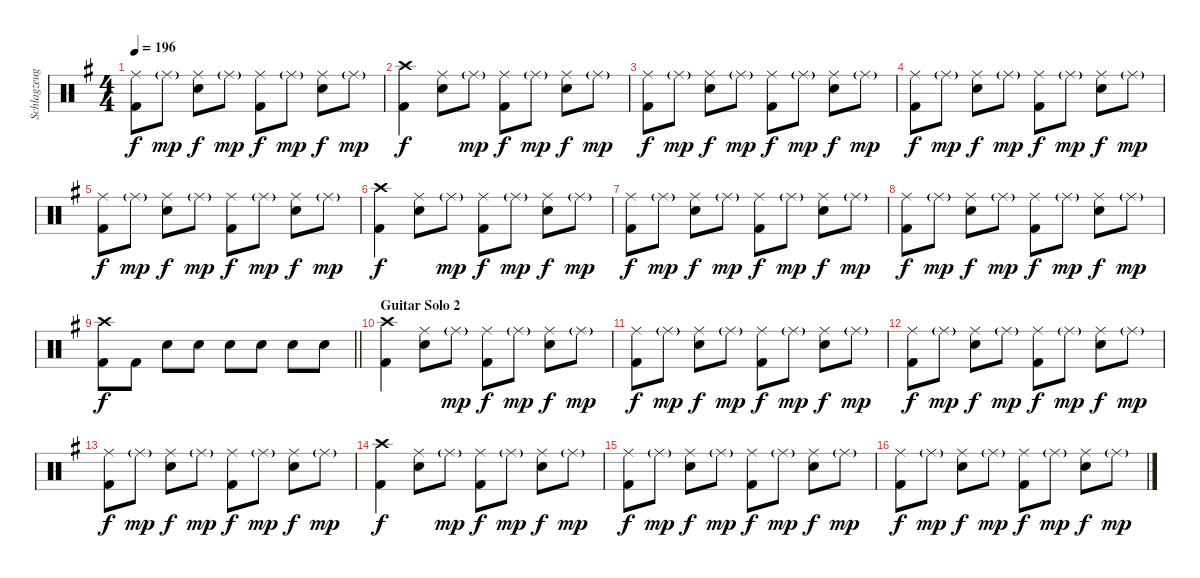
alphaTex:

\track ("Schlagzeug" "Schlagzeug") {instrument percussion}
\staff {score}
\articulation defaults
\ts (4 4)
\tempo 196
\clef neutral
\ks g
("Ride (middle)" "Kick (hit) 2").8{dy f} "Ride (middle)"{g}.8{dy mp} ("Ride (middle)" "Snare (hit) 2").8{dy f} "Ride (middle)"{g}.8{dy mp} ("Ride (middle)" "Kick (hit) 2").8{dy f} "Ride (middle)"{g}.8{dy mp} ("Ride (middle)" "Snare (hit) 2").8{dy f} "Ride (middle)"{g}.8{dy mp} |
("Crash high (hit)" "Kick (hit) 2").4{dy f} ("Ride (middle)" "Snare (hit) 2").8 "Ride (middle)"{g}.8{dy mp} ("Ride (middle)" "Kick (hit) 2").8{dy f} "Ride (middle)"{g}.8{dy mp} ("Ride (middle)" "Snare (hit) 2").8{dy f} "Ride (middle)"{g}.8{dy mp} |
("Ride (middle)" "Kick (hit) 2").8{dy f} "Ride (middle)"{g}.8{dy mp} ("Ride (middle)" "Snare (hit) 2").8{dy f} "Ride (middle)"{g}.8{dy mp} ("Ride (middle)" "Kick (hit) 2").8{dy f} "Ride (middle)"{g}.8{dy mp} ("Ride (middle)" "Snare (hit) 2").8{dy f} "Ride (middle)"{g}.8{dy mp} |
("Ride (middle)" "Kick (hit) 2").8{dy f} "Ride (middle)"{g}.8{dy mp} ("Ride (middle)" "Snare (hit) 2").8{dy f} "Ride (middle)"{g}.8{dy mp} ("Ride (middle)" "Kick (hit) 2").8{dy f} "Ride (middle)"{g}.8{dy mp} ("Ride (middle)" "Snare (hit) 2").8{dy f} "Ride (middle)"{g}.8{dy mp} |
("Ride (middle)" "Kick (hit) 2").8{dy f} "Ride (middle)"{g}.8{dy mp} ("Ride (middle)" "Snare (hit) 2").8{dy f} "Ride (middle)"{g}.8{dy mp} ("Ride (middle)" "Kick (hit) 2").8{dy f} "Ride (middle)"{g}.8{dy mp} ("Ride (middle)" "Snare (hit) 2").8{dy f} "Ride (middle)"{g}.8{dy mp} |
("Crash high (hit)" "Kick (hit) 2").4{dy f} ("Ride (middle)" "Snare (hit) 2").8 "Ride (middle)"{g}.8{dy mp} ("Ride (middle)" "Kick (hit) 2").8{dy f} "Ride (middle)"{g}.8{dy mp} ("Ride (middle)" "Snare (hit) 2").8{dy f} "Ride (middle)"{g}.8{dy mp} |
("Ride (middle)" "Kick (hit) 2").8{dy f} "Ride (middle)"{g}.8{dy mp} ("Ride (middle)" "Snare (hit) 2").8{dy f} "Ride (middle)"{g}.8{dy mp} ("Ride (middle)" "Kick (hit) 2").8{dy f} "Ride (middle)"{g}.8{dy mp} ("Ride (middle)" "Snare (hit) 2").8{dy f} "Ride (middle)"{g}.8{dy mp} |
("Ride (middle)" "Kick (hit) 2").8{dy f} "Ride (middle)"{g}.8{dy mp} ("Ride (middle)" "Snare (hit) 2").8{dy f} "Ride (middle)"{g}.8{dy mp} ("Ride (middle)" "Kick (hit) 2").8{dy f} "Ride (middle)"{g}.8{dy mp} ("Ride (middle)" "Snare (hit) 2").8{dy f} "Ride (middle)"{g}.8{dy mp} |
\barLineRight lightlight
("Crash high (hit)" "Kick (hit) 2").8{dy f} "Kick (hit) 2".8 "Snare (hit) 2".8 "Snare (hit) 2".8 "Snare (hit) 2".8 "Snare (hit) 2".8 "Snare (hit) 2".8 "Snare (hit) 2".8 |
\section ("" "Guitar Solo 2")
("Crash high (hit)" "Kick (hit) 2").4 ("Ride (middle)" "Snare (hit) 2").8 "Ride (middle)"{g}.8{dy mp} ("Ride (middle)" "Kick (hit) 2").8{dy f} "Ride (middle)"{g}.8{dy mp} ("Ride (middle)" "Snare (hit) 2").8{dy f} "Ride (middle)"{g}.8{dy mp} |
("Ride (middle)" "Kick (hit) 2").8{dy f} "Ride (middle)"{g}.8{dy mp} ("Ride (middle)" "Snare (hit) 2").8{dy f} "Ride (middle)"{g}.8{dy mp} ("Ride (middle)" "Kick (hit) 2").8{dy f} "Ride (middle)"{g}.8{dy mp} ("Ride (middle)" "Snare (hit) 2").8{dy f} "Ride (middle)"{g}.8{dy mp} |
("Ride (middle)" "Kick (hit) 2").8{dy f} "Ride (middle)"{g}.8{dy mp} ("Ride (middle)" "Snare (hit) 2").8{dy f} "Ride (middle)"{g}.8{dy mp} ("Ride (middle)" "Kick (hit) 2").8{dy f} "Ride (middle)"{g}.8{dy mp} ("Ride (middle)" "Snare (hit) 2").8{dy f} "Ride (middle)"{g}.8{dy mp} |
("Ride (middle)" "Kick (hit) 2").8{dy f} "Ride (middle)"{g}.8{dy mp} ("Ride (middle)" "Snare (hit) 2").8{dy f} "Ride (middle)"{g}.8{dy mp} ("Ride (middle)" "Kick (hit) 2").8{dy f} "Ride (middle)"{g}.8{dy mp} ("Ride (middle)" "Snare (hit) 2").8{dy f} "Ride (middle)"{g}.8{dy mp} |
("Crash high (hit)" "Kick (hit) 2").4{dy f} ("Ride (middle)" "Snare (hit) 2").8 "Ride (middle)"{g}.8{dy mp} ("Ride (middle)" "Kick (hit) 2").8{dy f} "Ride (middle)"{g}.8{dy mp} ("Ride (middle)" "Snare (hit) 2").8{dy f} "Ride (middle)"{g}.8{dy mp} |
("Ride (middle)" "Kick (hit) 2").8{dy f} "Ride (middle)"{g}.8{dy mp} ("Ride (middle)" "Snare (hit) 2").8{dy f} "Ride (middle)"{g}.8{dy mp} ("Ride (middle)" "Kick (hit) 2").8{dy f} "Ride (middle)"{g}.8{dy mp} ("Ride (middle)" "Snare (hit) 2").8{dy f} "Ride (middle)"{g}.8{dy mp} |
("Ride (middle)" "Kick (hit) 2").8{dy f} "Ride (middle)"{g}.8{dy mp} ("Ride (middle)" "Snare (hit) 2").8{dy f} "Ride (middle)"{g}.8{dy mp} ("Ride (middle)" "Kick (hit) 2").8{dy f} "Ride (middle)"{g}.8{dy mp} ("Ride (middle)" "Snare (hit) 2").8{dy f} "Ride (middle)"{g}.8{dy mp}
